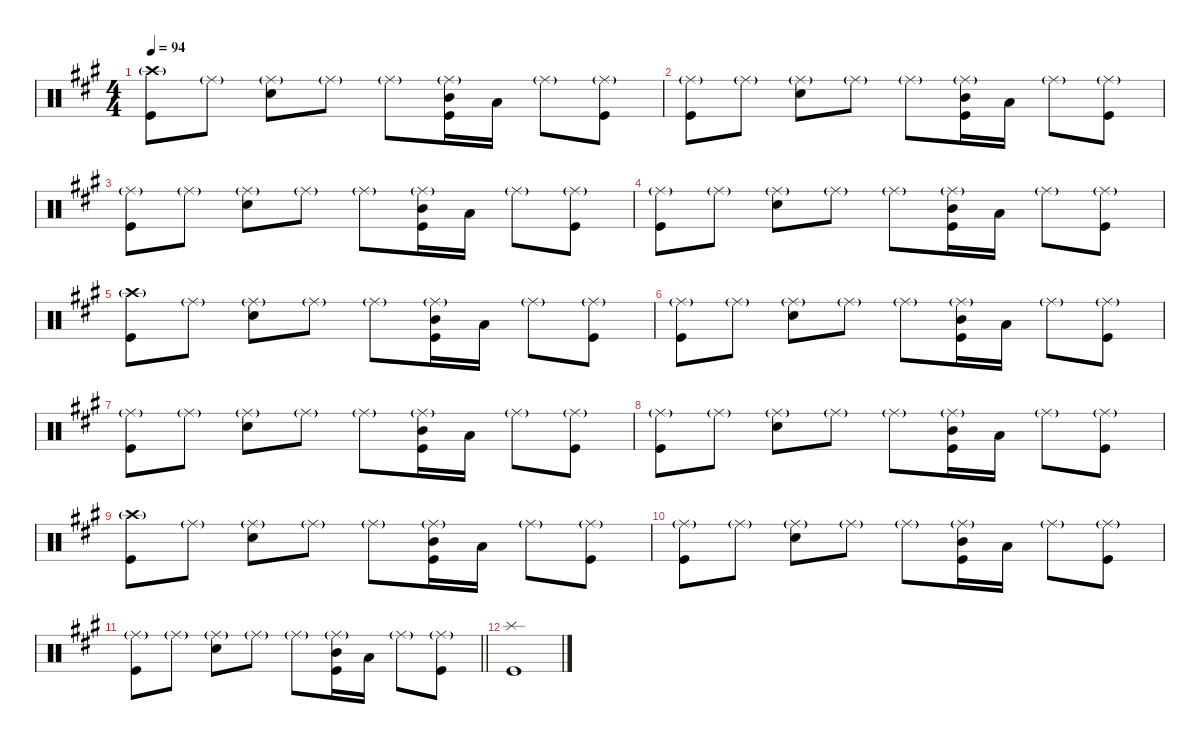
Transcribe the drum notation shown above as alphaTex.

\defaultSystemsLayout 4
\hideDynamics
\bracketExtendMode nobrackets
\singleTrackTrackNamePolicy hidden
\multiTrackTrackNamePolicy hidden
\firstSystemTrackNameMode fullname
\firstSystemTrackNameOrientation horizontal
\otherSystemsTrackNameOrientation horizontal
\track ("Percussion" "drm.") {defaultSystemsLayout 4 instrument percussion}
\staff {score}
\articulation defaults
\ts (4 4)
\tempo 94
\clef neutral
\ks a
("Crash high (hit)"{g acc forcenatural} "Kick (hit)"{acc forcenatural}).8{dy f beam Down} "Ride (middle)"{g acc forcenatural}.8{dy mf beam Down} ("Ride (middle)"{g acc forcenatural} "Snare (hit) 2"{acc forcenatural}).8{dy f beam Down} "Ride (middle)"{g acc forcenatural}.8{dy mf beam Down} "Ride (middle)"{g acc forcenatural}.8{beam Down} ("Ride (middle)"{g acc forcenatural} "Mid Tom (hit)"{acc forcenatural} "Kick (hit)"{acc forcenatural}).16{dy mp beam Down} "Low Tom (hit)"{acc forcenatural}.16{beam Down} "Ride (middle)"{g acc forcenatural}.8{dy mf beam Down} ("Ride (middle)"{g acc forcenatural} "Kick (hit)"{acc forcenatural}).8{dy f beam Down} |
("Ride (middle)"{g acc forcenatural} "Kick (hit)"{acc forcenatural}).8{beam Down} "Ride (middle)"{g acc forcenatural}.8{dy mf beam Down} ("Ride (middle)"{g acc forcenatural} "Snare (hit) 2"{acc forcenatural}).8{dy f beam Down} "Ride (middle)"{g acc forcenatural}.8{dy mf beam Down} "Ride (middle)"{g acc forcenatural}.8{beam Down} ("Ride (middle)"{g acc forcenatural} "Mid Tom (hit)"{acc forcenatural} "Kick (hit)"{acc forcenatural}).16{dy mp beam Down} "Low Tom (hit)"{acc forcenatural}.16{beam Down} "Ride (middle)"{g acc forcenatural}.8{dy mf beam Down} ("Ride (middle)"{g acc forcenatural} "Kick (hit)"{acc forcenatural}).8{dy f beam Down} |
("Ride (middle)"{g acc forcenatural} "Kick (hit)"{acc forcenatural}).8{beam Down} "Ride (middle)"{g acc forcenatural}.8{dy mf beam Down} ("Ride (middle)"{g acc forcenatural} "Snare (hit) 2"{acc forcenatural}).8{dy f beam Down} "Ride (middle)"{g acc forcenatural}.8{dy mf beam Down} "Ride (middle)"{g acc forcenatural}.8{beam Down} ("Ride (middle)"{g acc forcenatural} "Mid Tom (hit)"{acc forcenatural} "Kick (hit)"{acc forcenatural}).16{dy mp beam Down} "Low Tom (hit)"{acc forcenatural}.16{beam Down} "Ride (middle)"{g acc forcenatural}.8{dy mf beam Down} ("Ride (middle)"{g acc forcenatural} "Kick (hit)"{acc forcenatural}).8{dy f beam Down} |
("Ride (middle)"{g acc forcenatural} "Kick (hit)"{acc forcenatural}).8{beam Down} "Ride (middle)"{g acc forcenatural}.8{dy mf beam Down} ("Ride (middle)"{g acc forcenatural} "Snare (hit) 2"{acc forcenatural}).8{dy f beam Down} "Ride (middle)"{g acc forcenatural}.8{dy mf beam Down} "Ride (middle)"{g acc forcenatural}.8{beam Down} ("Ride (middle)"{g acc forcenatural} "Mid Tom (hit)"{acc forcenatural} "Kick (hit)"{acc forcenatural}).16{dy mp beam Down} "Low Tom (hit)"{acc forcenatural}.16{beam Down} "Ride (middle)"{g acc forcenatural}.8{dy mf beam Down} ("Ride (middle)"{g acc forcenatural} "Kick (hit)"{acc forcenatural}).8{dy f beam Down} |
("Crash high (hit)"{g acc forcenatural} "Kick (hit)"{acc forcenatural}).8{beam Down} "Ride (middle)"{g acc forcenatural}.8{dy mf beam Down} ("Ride (middle)"{g acc forcenatural} "Snare (hit) 2"{acc forcenatural}).8{dy f beam Down} "Ride (middle)"{g acc forcenatural}.8{dy mf beam Down} "Ride (middle)"{g acc forcenatural}.8{beam Down} ("Ride (middle)"{g acc forcenatural} "Mid Tom (hit)"{acc forcenatural} "Kick (hit)"{acc forcenatural}).16{dy mp beam Down} "Low Tom (hit)"{acc forcenatural}.16{beam Down} "Ride (middle)"{g acc forcenatural}.8{dy mf beam Down} ("Ride (middle)"{g acc forcenatural} "Kick (hit)"{acc forcenatural}).8{dy f beam Down} |
("Ride (middle)"{g acc forcenatural} "Kick (hit)"{acc forcenatural}).8{beam Down} "Ride (middle)"{g acc forcenatural}.8{dy mf beam Down} ("Ride (middle)"{g acc forcenatural} "Snare (hit) 2"{acc forcenatural}).8{dy f beam Down} "Ride (middle)"{g acc forcenatural}.8{dy mf beam Down} "Ride (middle)"{g acc forcenatural}.8{beam Down} ("Ride (middle)"{g acc forcenatural} "Mid Tom (hit)"{acc forcenatural} "Kick (hit)"{acc forcenatural}).16{dy mp beam Down} "Low Tom (hit)"{acc forcenatural}.16{beam Down} "Ride (middle)"{g acc forcenatural}.8{dy mf beam Down} ("Ride (middle)"{g acc forcenatural} "Kick (hit)"{acc forcenatural}).8{dy f beam Down} |
("Ride (middle)"{g acc forcenatural} "Kick (hit)"{acc forcenatural}).8{beam Down} "Ride (middle)"{g acc forcenatural}.8{dy mf beam Down} ("Ride (middle)"{g acc forcenatural} "Snare (hit) 2"{acc forcenatural}).8{dy f beam Down} "Ride (middle)"{g acc forcenatural}.8{dy mf beam Down} "Ride (middle)"{g acc forcenatural}.8{beam Down} ("Ride (middle)"{g acc forcenatural} "Mid Tom (hit)"{acc forcenatural} "Kick (hit)"{acc forcenatural}).16{dy mp beam Down} "Low Tom (hit)"{acc forcenatural}.16{beam Down} "Ride (middle)"{g acc forcenatural}.8{dy mf beam Down} ("Ride (middle)"{g acc forcenatural} "Kick (hit)"{acc forcenatural}).8{dy f beam Down} |
("Ride (middle)"{g acc forcenatural} "Kick (hit)"{acc forcenatural}).8{beam Down} "Ride (middle)"{g acc forcenatural}.8{dy mf beam Down} ("Ride (middle)"{g acc forcenatural} "Snare (hit) 2"{acc forcenatural}).8{dy f beam Down} "Ride (middle)"{g acc forcenatural}.8{dy mf beam Down} "Ride (middle)"{g acc forcenatural}.8{beam Down} ("Ride (middle)"{g acc forcenatural} "Mid Tom (hit)"{acc forcenatural} "Kick (hit)"{acc forcenatural}).16{dy mp beam Down} "Low Tom (hit)"{acc forcenatural}.16{beam Down} "Ride (middle)"{g acc forcenatural}.8{dy mf beam Down} ("Ride (middle)"{g acc forcenatural} "Kick (hit)"{acc forcenatural}).8{dy f beam Down} |
("Crash high (hit)"{g acc forcenatural} "Kick (hit)"{acc forcenatural}).8{beam Down} "Ride (middle)"{g acc forcenatural}.8{dy mf beam Down} ("Ride (middle)"{g acc forcenatural} "Snare (hit) 2"{acc forcenatural}).8{dy f beam Down} "Ride (middle)"{g acc forcenatural}.8{dy mf beam Down} "Ride (middle)"{g acc forcenatural}.8{beam Down} ("Ride (middle)"{g acc forcenatural} "Mid Tom (hit)"{acc forcenatural} "Kick (hit)"{acc forcenatural}).16{dy mp beam Down} "Low Tom (hit)"{acc forcenatural}.16{beam Down} "Ride (middle)"{g acc forcenatural}.8{dy mf beam Down} ("Ride (middle)"{g acc forcenatural} "Kick (hit)"{acc forcenatural}).8{dy f beam Down} |
("Ride (middle)"{g acc forcenatural} "Kick (hit)"{acc forcenatural}).8{beam Down} "Ride (middle)"{g acc forcenatural}.8{dy mf beam Down} ("Ride (middle)"{g acc forcenatural} "Snare (hit) 2"{acc forcenatural}).8{dy f beam Down} "Ride (middle)"{g acc forcenatural}.8{dy mf beam Down} "Ride (middle)"{g acc forcenatural}.8{beam Down} ("Ride (middle)"{g acc forcenatural} "Mid Tom (hit)"{acc forcenatural} "Kick (hit)"{acc forcenatural}).16{dy mp beam Down} "Low Tom (hit)"{acc forcenatural}.16{beam Down} "Ride (middle)"{g acc forcenatural}.8{dy mf beam Down} ("Ride (middle)"{g acc forcenatural} "Kick (hit)"{acc forcenatural}).8{dy f beam Down} |
\barLineRight lightlight
("Ride (middle)"{g acc forcenatural} "Kick (hit)"{acc forcenatural}).8{beam Down} "Ride (middle)"{g acc forcenatural}.8{dy mf beam Down} ("Ride (middle)"{g acc forcenatural} "Snare (hit) 2"{acc forcenatural}).8{dy f beam Down} "Ride (middle)"{g acc forcenatural}.8{dy mf beam Down} "Ride (middle)"{g acc forcenatural}.8{beam Down} ("Ride (middle)"{g acc forcenatural} "Mid Tom (hit)"{acc forcenatural} "Kick (hit)"{acc forcenatural}).16{dy mp beam Down} "Low Tom (hit)"{acc forcenatural}.16{beam Down} "Ride (middle)"{g acc forcenatural}.8{dy mf beam Down} ("Ride (middle)"{g acc forcenatural} "Kick (hit)"{acc forcenatural}).8{dy f beam Down} |
("Splash (hit)"{acc forcenatural} "Kick (hit)"{acc forcenatural}).1{beam Down}
